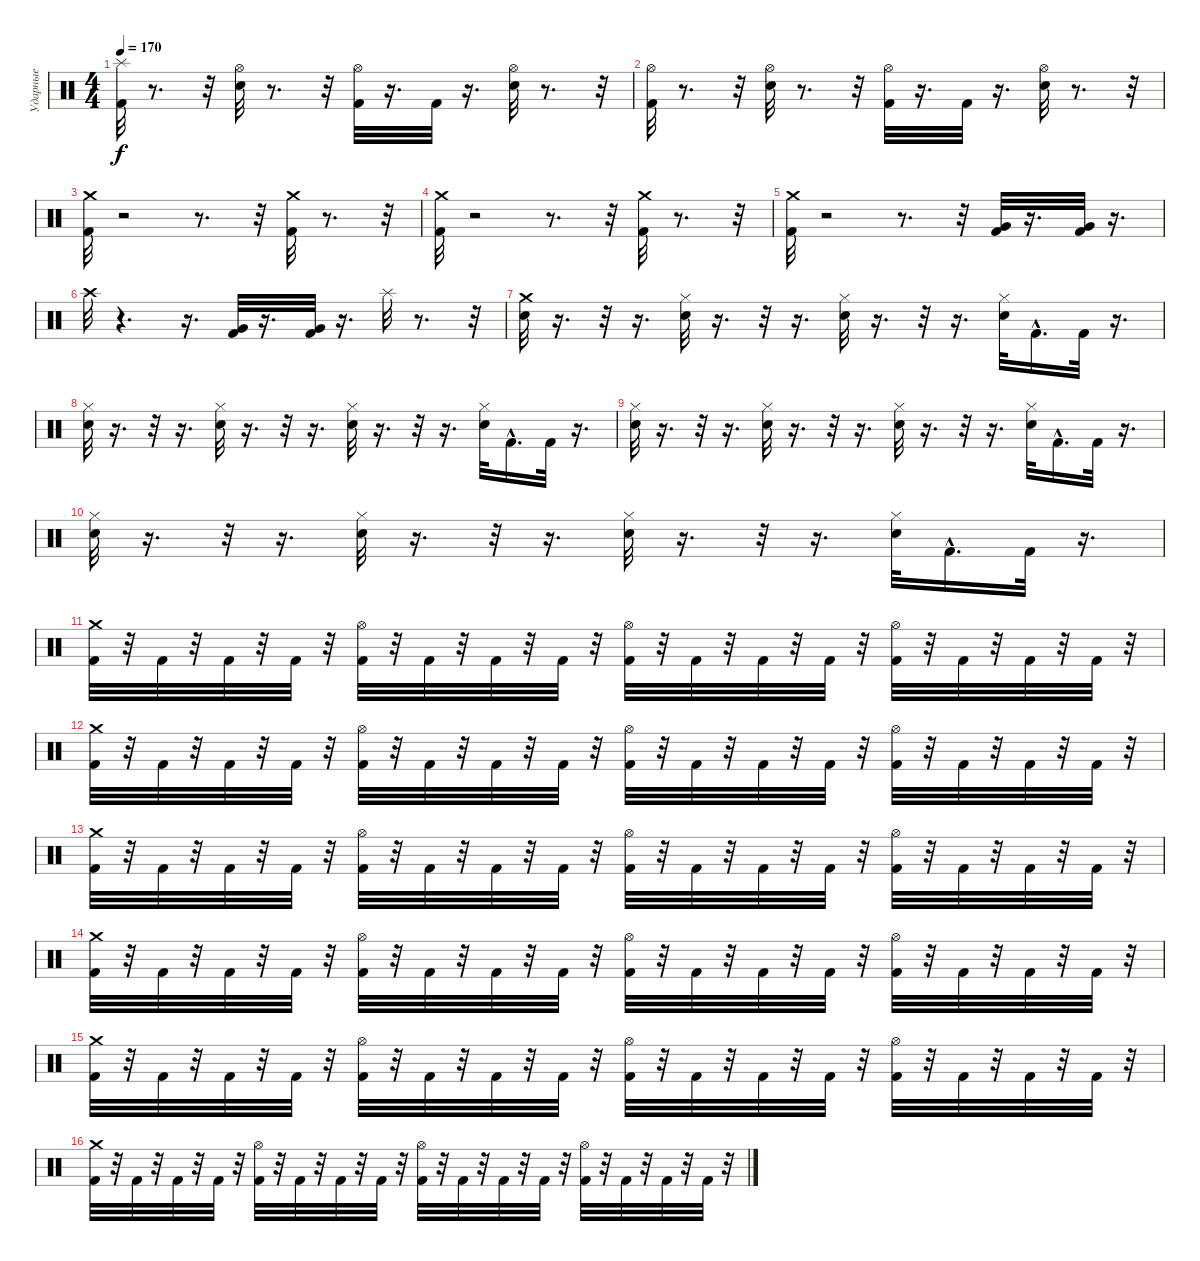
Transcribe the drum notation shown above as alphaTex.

\track ("Ударные" "Ударные") {instrument percussion}
\staff {score}
\articulation defaults
\ts (4 4)
\tempo 170
\clef neutral
\ks c
("Splash (hit)" "Kick (hit) 2").32{dy f} r.8{d} r.32 ("Hi-Hat (open)" "Electric Snare (hit)").32 r.8{d} r.32 ("Hi-Hat (open)" "Kick (hit) 2").32 r.16{d} "Kick (hit) 2".32 r.16{d} ("Hi-Hat (open)" "Electric Snare (hit)").32 r.8{d} r.32 |
("Hi-Hat (open)" "Kick (hit) 2").32 r.8{d} r.32 ("Hi-Hat (open)" "Electric Snare (hit)").32 r.8{d} r.32 ("Hi-Hat (open)" "Kick (hit) 2").32 r.16{d} "Kick (hit) 2".32 r.16{d} ("Hi-Hat (open)" "Electric Snare (hit)").32 r.8{d} r.32 |
("Kick (hit) 2" "Crash medium (hit)").32 r.2 r.8{d} r.32 ("Kick (hit) 2" "Crash medium (hit)").32 r.8{d} r.32 |
("Kick (hit) 2" "Crash medium (hit)").32 r.2 r.8{d} r.32 ("Kick (hit) 2" "Crash medium (hit)").32 r.8{d} r.32 |
("Kick (hit) 2" "Crash medium (hit)").32 r.2 r.8{d} r.32 ("Kick (hit) 2" "Very Low Tom (hit)").32 r.16{d} ("Kick (hit) 2" "Very Low Tom (hit)").32 r.16{d} |
"Crash high (hit)".32 r.4{d} r.16{d} ("Kick (hit) 2" "Very Low Tom (hit)").32 r.16{d} ("Kick (hit) 2" "Very Low Tom (hit)").32 r.16{d} "Splash (hit)".32 r.8{d} r.32 |
("Crash medium (hit)" "Snare (hit) 2").32 r.16{d} r.32 r.16{d} ("Hi-Hat (closed)" "Snare (hit) 2").32 r.16{d} r.32 r.16{d} ("Hi-Hat (closed)" "Snare (hit) 2").32 r.16{d} r.32 r.16{d} ("Hi-Hat (closed)" "Snare (hit) 2").32 "Kick (hit) 2"{hac}.16{d} "Kick (hit) 2".32 r.16{d} |
("Hi-Hat (closed)" "Snare (hit) 2").32 r.16{d} r.32 r.16{d} ("Hi-Hat (closed)" "Snare (hit) 2").32 r.16{d} r.32 r.16{d} ("Hi-Hat (closed)" "Snare (hit) 2").32 r.16{d} r.32 r.16{d} ("Hi-Hat (closed)" "Snare (hit) 2").32 "Kick (hit) 2"{hac}.16{d} "Kick (hit) 2".32 r.16{d} |
("Hi-Hat (closed)" "Snare (hit) 2").32 r.16{d} r.32 r.16{d} ("Hi-Hat (closed)" "Snare (hit) 2").32 r.16{d} r.32 r.16{d} ("Hi-Hat (closed)" "Snare (hit) 2").32 r.16{d} r.32 r.16{d} ("Hi-Hat (closed)" "Snare (hit) 2").32 "Kick (hit) 2"{hac}.16{d} "Kick (hit) 2".32 r.16{d} |
("Hi-Hat (closed)" "Snare (hit) 2").32 r.16{d} r.32 r.16{d} ("Hi-Hat (closed)" "Snare (hit) 2").32 r.16{d} r.32 r.16{d} ("Hi-Hat (closed)" "Snare (hit) 2").32 r.16{d} r.32 r.16{d} ("Hi-Hat (closed)" "Snare (hit) 2").32 "Kick (hit) 2"{hac}.16{d} "Kick (hit) 2".32 r.16{d} |
("Crash medium (hit)" "Kick (hit) 2").32 r.32 "Kick (hit) 2".32 r.32 "Kick (hit) 2".32 r.32 "Kick (hit) 2".32 r.32 ("Hi-Hat (open)" "Kick (hit) 2").32 r.32 "Kick (hit) 2".32 r.32 "Kick (hit) 2".32 r.32 "Kick (hit) 2".32 r.32 ("Hi-Hat (open)" "Kick (hit) 2").32 r.32 "Kick (hit) 2".32 r.32 "Kick (hit) 2".32 r.32 "Kick (hit) 2".32 r.32 ("Hi-Hat (open)" "Kick (hit) 2").32 r.32 "Kick (hit) 2".32 r.32 "Kick (hit) 2".32 r.32 "Kick (hit) 2".32 r.32 |
("Crash medium (hit)" "Kick (hit) 2").32 r.32 "Kick (hit) 2".32 r.32 "Kick (hit) 2".32 r.32 "Kick (hit) 2".32 r.32 ("Hi-Hat (open)" "Kick (hit) 2").32 r.32 "Kick (hit) 2".32 r.32 "Kick (hit) 2".32 r.32 "Kick (hit) 2".32 r.32 ("Hi-Hat (open)" "Kick (hit) 2").32 r.32 "Kick (hit) 2".32 r.32 "Kick (hit) 2".32 r.32 "Kick (hit) 2".32 r.32 ("Hi-Hat (open)" "Kick (hit) 2").32 r.32 "Kick (hit) 2".32 r.32 "Kick (hit) 2".32 r.32 "Kick (hit) 2".32 r.32 |
("Crash medium (hit)" "Kick (hit) 2").32 r.32 "Kick (hit) 2".32 r.32 "Kick (hit) 2".32 r.32 "Kick (hit) 2".32 r.32 ("Hi-Hat (open)" "Kick (hit) 2").32 r.32 "Kick (hit) 2".32 r.32 "Kick (hit) 2".32 r.32 "Kick (hit) 2".32 r.32 ("Hi-Hat (open)" "Kick (hit) 2").32 r.32 "Kick (hit) 2".32 r.32 "Kick (hit) 2".32 r.32 "Kick (hit) 2".32 r.32 ("Hi-Hat (open)" "Kick (hit) 2").32 r.32 "Kick (hit) 2".32 r.32 "Kick (hit) 2".32 r.32 "Kick (hit) 2".32 r.32 |
("Crash medium (hit)" "Kick (hit) 2").32 r.32 "Kick (hit) 2".32 r.32 "Kick (hit) 2".32 r.32 "Kick (hit) 2".32 r.32 ("Hi-Hat (open)" "Kick (hit) 2").32 r.32 "Kick (hit) 2".32 r.32 "Kick (hit) 2".32 r.32 "Kick (hit) 2".32 r.32 ("Hi-Hat (open)" "Kick (hit) 2").32 r.32 "Kick (hit) 2".32 r.32 "Kick (hit) 2".32 r.32 "Kick (hit) 2".32 r.32 ("Hi-Hat (open)" "Kick (hit) 2").32 r.32 "Kick (hit) 2".32 r.32 "Kick (hit) 2".32 r.32 "Kick (hit) 2".32 r.32 |
("Crash medium (hit)" "Kick (hit) 2").32 r.32 "Kick (hit) 2".32 r.32 "Kick (hit) 2".32 r.32 "Kick (hit) 2".32 r.32 ("Hi-Hat (open)" "Kick (hit) 2").32 r.32 "Kick (hit) 2".32 r.32 "Kick (hit) 2".32 r.32 "Kick (hit) 2".32 r.32 ("Hi-Hat (open)" "Kick (hit) 2").32 r.32 "Kick (hit) 2".32 r.32 "Kick (hit) 2".32 r.32 "Kick (hit) 2".32 r.32 ("Hi-Hat (open)" "Kick (hit) 2").32 r.32 "Kick (hit) 2".32 r.32 "Kick (hit) 2".32 r.32 "Kick (hit) 2".32 r.32 |
("Crash medium (hit)" "Kick (hit) 2").32 r.32 "Kick (hit) 2".32 r.32 "Kick (hit) 2".32 r.32 "Kick (hit) 2".32 r.32 ("Hi-Hat (open)" "Kick (hit) 2").32 r.32 "Kick (hit) 2".32 r.32 "Kick (hit) 2".32 r.32 "Kick (hit) 2".32 r.32 ("Hi-Hat (open)" "Kick (hit) 2").32 r.32 "Kick (hit) 2".32 r.32 "Kick (hit) 2".32 r.32 "Kick (hit) 2".32 r.32 ("Hi-Hat (open)" "Kick (hit) 2").32 r.32 "Kick (hit) 2".32 r.32 "Kick (hit) 2".32 r.32 "Kick (hit) 2".32 r.32
